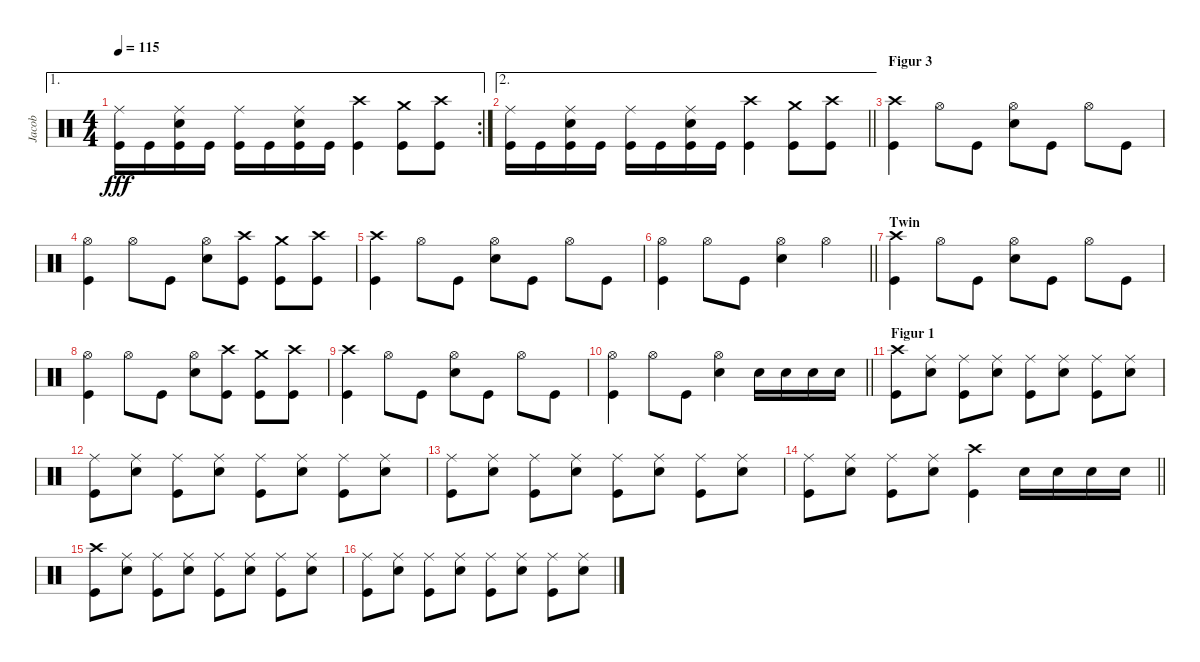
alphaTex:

\track ("Jacob" "Jacob") {instrument percussion}
\staff {score}
\articulation defaults
\ae 1
\rc 2
\ts (4 4)
\tempo 115
\clef neutral
\ks c
("Kick (hit)" "Ride (middle)").16{dy fff} "Kick (hit)".16 ("Kick (hit)" "Electric Snare (hit)" "Ride (middle)").16 "Kick (hit)".16 ("Kick (hit)" "Ride (middle)").16 "Kick (hit)".16 ("Kick (hit)" "Electric Snare (hit)" "Ride (middle)").16 "Kick (hit)".16 ("Kick (hit)" "Crash high (hit)").4 ("Kick (hit)" "Crash medium (hit)").8 ("Kick (hit)" "Crash high (hit)").8 |
\ae 2
\barLineRight lightlight
("Kick (hit)" "Ride (middle)").16 "Kick (hit)".16 ("Kick (hit)" "Electric Snare (hit)" "Ride (middle)").16 "Kick (hit)".16 ("Kick (hit)" "Ride (middle)").16 "Kick (hit)".16 ("Kick (hit)" "Electric Snare (hit)" "Ride (middle)").16 "Kick (hit)".16 ("Kick (hit)" "Crash high (hit)").4 ("Kick (hit)" "Crash medium (hit)").8 ("Kick (hit)" "Crash high (hit)").8 |
\section ("" "Figur 3")
("Kick (hit)" "Crash high (hit)").4 "Hi-Hat (open)".8 "Kick (hit)".8 ("Electric Snare (hit)" "Hi-Hat (open)").8 "Kick (hit)".8 "Hi-Hat (open)".8 "Kick (hit)".8 |
("Kick (hit)" "Hi-Hat (open)").4 "Hi-Hat (open)".8 "Kick (hit)".8 ("Electric Snare (hit)" "Hi-Hat (open)").8 ("Kick (hit)" "Crash high (hit)").8 ("Kick (hit)" "Crash medium (hit)").8 ("Kick (hit)" "Crash high (hit)").8 |
("Kick (hit)" "Crash high (hit)").4 "Hi-Hat (open)".8 "Kick (hit)".8 ("Electric Snare (hit)" "Hi-Hat (open)").8 "Kick (hit)".8 "Hi-Hat (open)".8 "Kick (hit)".8 |
\barLineRight lightlight
("Kick (hit)" "Hi-Hat (open)").4 "Hi-Hat (open)".8 "Kick (hit)".8 ("Electric Snare (hit)" "Hi-Hat (open)").4 "Hi-Hat (open)".4 |
\section ("" "Twin")
("Kick (hit)" "Crash high (hit)").4 "Hi-Hat (open)".8 "Kick (hit)".8 ("Electric Snare (hit)" "Hi-Hat (open)").8 "Kick (hit)".8 "Hi-Hat (open)".8 "Kick (hit)".8 |
("Kick (hit)" "Hi-Hat (open)").4 "Hi-Hat (open)".8 "Kick (hit)".8 ("Electric Snare (hit)" "Hi-Hat (open)").8 ("Kick (hit)" "Crash high (hit)").8 ("Kick (hit)" "Crash medium (hit)").8 ("Kick (hit)" "Crash high (hit)").8 |
("Kick (hit)" "Crash high (hit)").4 "Hi-Hat (open)".8 "Kick (hit)".8 ("Electric Snare (hit)" "Hi-Hat (open)").8 "Kick (hit)".8 "Hi-Hat (open)".8 "Kick (hit)".8 |
\barLineRight lightlight
("Kick (hit)" "Hi-Hat (open)").4 "Hi-Hat (open)".8 "Kick (hit)".8 ("Electric Snare (hit)" "Hi-Hat (open)").4 "Electric Snare (hit)".16 "Electric Snare (hit)".16 "Electric Snare (hit)".16 "Electric Snare (hit)".16 |
\section ("" "Figur 1")
("Kick (hit)" "Crash high (hit)").8 ("Electric Snare (hit)" "Ride (middle)").8 ("Kick (hit)" "Ride (middle)").8 ("Electric Snare (hit)" "Ride (middle)").8 ("Kick (hit)" "Ride (middle)").8 ("Electric Snare (hit)" "Ride (middle)").8 ("Kick (hit)" "Ride (middle)").8 ("Electric Snare (hit)" "Ride (middle)").8 |
("Kick (hit)" "Ride (middle)").8 ("Electric Snare (hit)" "Ride (middle)").8 ("Kick (hit)" "Ride (middle)").8 ("Electric Snare (hit)" "Ride (middle)").8 ("Kick (hit)" "Ride (middle)").8 ("Electric Snare (hit)" "Ride (middle)").8 ("Kick (hit)" "Ride (middle)").8 ("Electric Snare (hit)" "Ride (middle)").8 |
("Kick (hit)" "Ride (middle)").8 ("Electric Snare (hit)" "Ride (middle)").8 ("Kick (hit)" "Ride (middle)").8 ("Electric Snare (hit)" "Ride (middle)").8 ("Kick (hit)" "Ride (middle)").8 ("Electric Snare (hit)" "Ride (middle)").8 ("Kick (hit)" "Ride (middle)").8 ("Electric Snare (hit)" "Ride (middle)").8 |
\barLineRight lightlight
("Kick (hit)" "Ride (middle)").8 ("Electric Snare (hit)" "Ride (middle)").8 ("Kick (hit)" "Ride (middle)").8 ("Electric Snare (hit)" "Ride (middle)").8 ("Kick (hit)" "Crash high (hit)").4 "Electric Snare (hit)".16 "Electric Snare (hit)".16 "Electric Snare (hit)".16 "Electric Snare (hit)".16 |
("Kick (hit)" "Crash high (hit)").8 ("Electric Snare (hit)" "Ride (middle)").8 ("Kick (hit)" "Ride (middle)").8 ("Electric Snare (hit)" "Ride (middle)").8 ("Kick (hit)" "Ride (middle)").8 ("Electric Snare (hit)" "Ride (middle)").8 ("Kick (hit)" "Ride (middle)").8 ("Electric Snare (hit)" "Ride (middle)").8 |
("Kick (hit)" "Ride (middle)").8 ("Electric Snare (hit)" "Ride (middle)").8 ("Kick (hit)" "Ride (middle)").8 ("Electric Snare (hit)" "Ride (middle)").8 ("Kick (hit)" "Ride (middle)").8 ("Electric Snare (hit)" "Ride (middle)").8 ("Kick (hit)" "Ride (middle)").8 ("Electric Snare (hit)" "Ride (middle)").8
